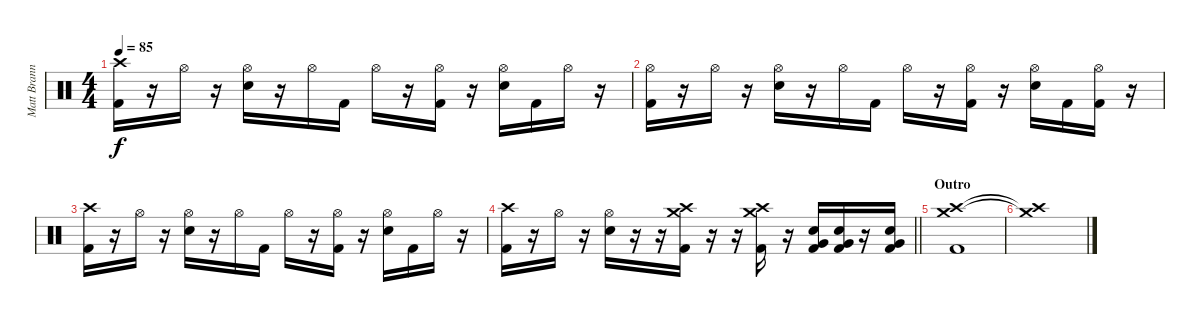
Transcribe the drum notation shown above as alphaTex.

\track ("Matt Brann" "Matt Brann") {instrument percussion}
\staff {score}
\articulation defaults
\ts (4 4)
\tempo 85
\clef neutral
\ks c
("Crash high (hit)" "Kick (hit) 2").16{dy f} r.16 "Hi-Hat (open)".16 r.16 ("Hi-Hat (open)" "Electric Snare (hit)").16 r.16 "Hi-Hat (open)".16 "Kick (hit) 2".16 "Hi-Hat (open)".16 r.16 ("Hi-Hat (open)" "Kick (hit) 2").16 r.16 ("Hi-Hat (open)" "Electric Snare (hit)").16 "Kick (hit) 2".16 "Hi-Hat (open)".16 r.16 |
("Hi-Hat (open)" "Kick (hit) 2").16 r.16 "Hi-Hat (open)".16 r.16 ("Hi-Hat (open)" "Electric Snare (hit)").16 r.16 "Hi-Hat (open)".16 "Kick (hit) 2".16 "Hi-Hat (open)".16 r.16 ("Hi-Hat (open)" "Kick (hit) 2").16 r.16 ("Hi-Hat (open)" "Electric Snare (hit)").16 "Kick (hit) 2".16 ("Hi-Hat (open)" "Kick (hit) 2").16 r.16 |
("Crash high (hit)" "Kick (hit) 2").16 r.16 "Hi-Hat (open)".16 r.16 ("Hi-Hat (open)" "Electric Snare (hit)").16 r.16 "Hi-Hat (open)".16 "Kick (hit) 2".16 "Hi-Hat (open)".16 r.16 ("Hi-Hat (open)" "Kick (hit) 2").16 r.16 ("Hi-Hat (open)" "Electric Snare (hit)").16 "Kick (hit) 2".16 "Hi-Hat (open)".16 r.16 |
\barLineRight lightlight
("Crash high (hit)" "Kick (hit) 2").16 r.16 "Hi-Hat (open)".16 r.16 ("Hi-Hat (open)" "Electric Snare (hit)").16 r.16 r.16 ("Crash high (hit)" "Crash medium (hit)" "Kick (hit) 2").16 r.16 r.16 ("Crash high (hit)" "Crash medium (hit)" "Kick (hit) 2").16 r.16 ("Very Low Tom (hit)" "Electric Snare (hit)" "Kick (hit) 2").16 ("Very Low Tom (hit)" "Electric Snare (hit)" "Kick (hit) 2").16 r.16 ("Very Low Tom (hit)" "Electric Snare (hit)" "Kick (hit) 2").16 |
\section ("" "Outro")
("Crash high (hit)" "Crash medium (hit)" "Kick (hit) 2").1{volume 0} |
("Crash high (hit)"{t} "Crash medium (hit)"{t}).1
